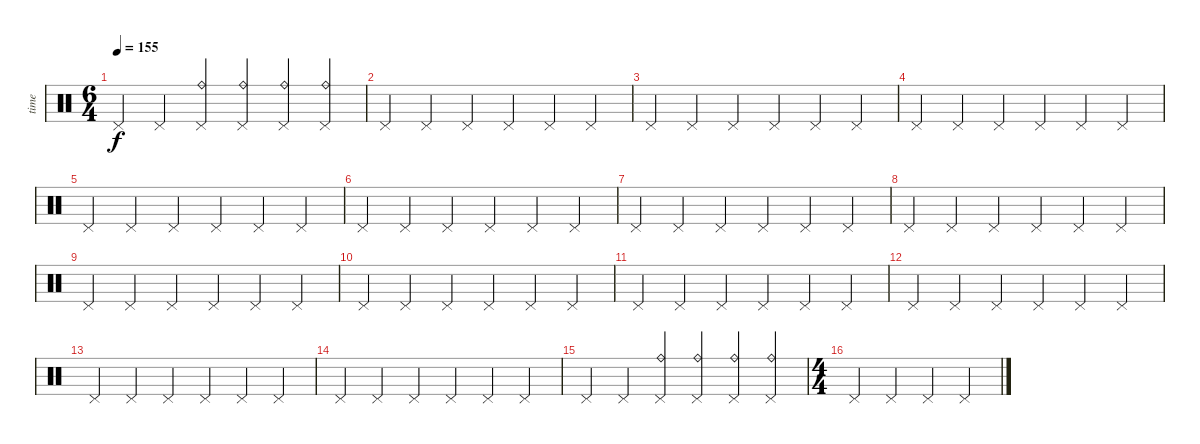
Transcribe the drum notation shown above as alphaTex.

\track ("time" "time") {instrument percussion}
\staff {score}
\articulation defaults
\ts (6 4)
\tempo 155
\clef neutral
\ks c "Pedal Hi-Hat (hit)".4{dy f} "Pedal Hi-Hat (hit)".4
("Pedal Hi-Hat (hit)" "Ride (bell)").4 ("Pedal Hi-Hat (hit)" "Ride (bell)").4 ("Pedal Hi-Hat (hit)" "Ride (bell)").4 ("Pedal Hi-Hat (hit)" "Ride (bell)").4 |
"Pedal Hi-Hat (hit)".4 "Pedal Hi-Hat (hit)".4 "Pedal Hi-Hat (hit)".4 "Pedal Hi-Hat (hit)".4 "Pedal Hi-Hat (hit)".4 "Pedal Hi-Hat (hit)".4 |
"Pedal Hi-Hat (hit)".4 "Pedal Hi-Hat (hit)".4 "Pedal Hi-Hat (hit)".4 "Pedal Hi-Hat (hit)".4 "Pedal Hi-Hat (hit)".4 "Pedal Hi-Hat (hit)".4 |
"Pedal Hi-Hat (hit)".4 "Pedal Hi-Hat (hit)".4 "Pedal Hi-Hat (hit)".4 "Pedal Hi-Hat (hit)".4 "Pedal Hi-Hat (hit)".4 "Pedal Hi-Hat (hit)".4 |
"Pedal Hi-Hat (hit)".4 "Pedal Hi-Hat (hit)".4 "Pedal Hi-Hat (hit)".4 "Pedal Hi-Hat (hit)".4 "Pedal Hi-Hat (hit)".4 "Pedal Hi-Hat (hit)".4 |
"Pedal Hi-Hat (hit)".4 "Pedal Hi-Hat (hit)".4 "Pedal Hi-Hat (hit)".4 "Pedal Hi-Hat (hit)".4 "Pedal Hi-Hat (hit)".4 "Pedal Hi-Hat (hit)".4 |
"Pedal Hi-Hat (hit)".4 "Pedal Hi-Hat (hit)".4 "Pedal Hi-Hat (hit)".4 "Pedal Hi-Hat (hit)".4 "Pedal Hi-Hat (hit)".4 "Pedal Hi-Hat (hit)".4 |
"Pedal Hi-Hat (hit)".4 "Pedal Hi-Hat (hit)".4 "Pedal Hi-Hat (hit)".4 "Pedal Hi-Hat (hit)".4 "Pedal Hi-Hat (hit)".4 "Pedal Hi-Hat (hit)".4 |
"Pedal Hi-Hat (hit)".4 "Pedal Hi-Hat (hit)".4 "Pedal Hi-Hat (hit)".4 "Pedal Hi-Hat (hit)".4 "Pedal Hi-Hat (hit)".4 "Pedal Hi-Hat (hit)".4 |
"Pedal Hi-Hat (hit)".4 "Pedal Hi-Hat (hit)".4 "Pedal Hi-Hat (hit)".4 "Pedal Hi-Hat (hit)".4 "Pedal Hi-Hat (hit)".4 "Pedal Hi-Hat (hit)".4 |
"Pedal Hi-Hat (hit)".4 "Pedal Hi-Hat (hit)".4 "Pedal Hi-Hat (hit)".4 "Pedal Hi-Hat (hit)".4 "Pedal Hi-Hat (hit)".4 "Pedal Hi-Hat (hit)".4 |
"Pedal Hi-Hat (hit)".4 "Pedal Hi-Hat (hit)".4 "Pedal Hi-Hat (hit)".4 "Pedal Hi-Hat (hit)".4 "Pedal Hi-Hat (hit)".4 "Pedal Hi-Hat (hit)".4 |
"Pedal Hi-Hat (hit)".4 "Pedal Hi-Hat (hit)".4 "Pedal Hi-Hat (hit)".4 "Pedal Hi-Hat (hit)".4 "Pedal Hi-Hat (hit)".4 "Pedal Hi-Hat (hit)".4 |
"Pedal Hi-Hat (hit)".4 "Pedal Hi-Hat (hit)".4 "Pedal Hi-Hat (hit)".4 "Pedal Hi-Hat (hit)".4 "Pedal Hi-Hat (hit)".4 "Pedal Hi-Hat (hit)".4 |
"Pedal Hi-Hat (hit)".4 "Pedal Hi-Hat (hit)".4 ("Pedal Hi-Hat (hit)" "Ride (bell)").4 ("Pedal Hi-Hat (hit)" "Ride (bell)").4 ("Pedal Hi-Hat (hit)" "Ride (bell)").4 ("Pedal Hi-Hat (hit)" "Ride (bell)").4 |
\ts (4 4)
"Pedal Hi-Hat (hit)".4 "Pedal Hi-Hat (hit)".4 "Pedal Hi-Hat (hit)".4 "Pedal Hi-Hat (hit)".4
